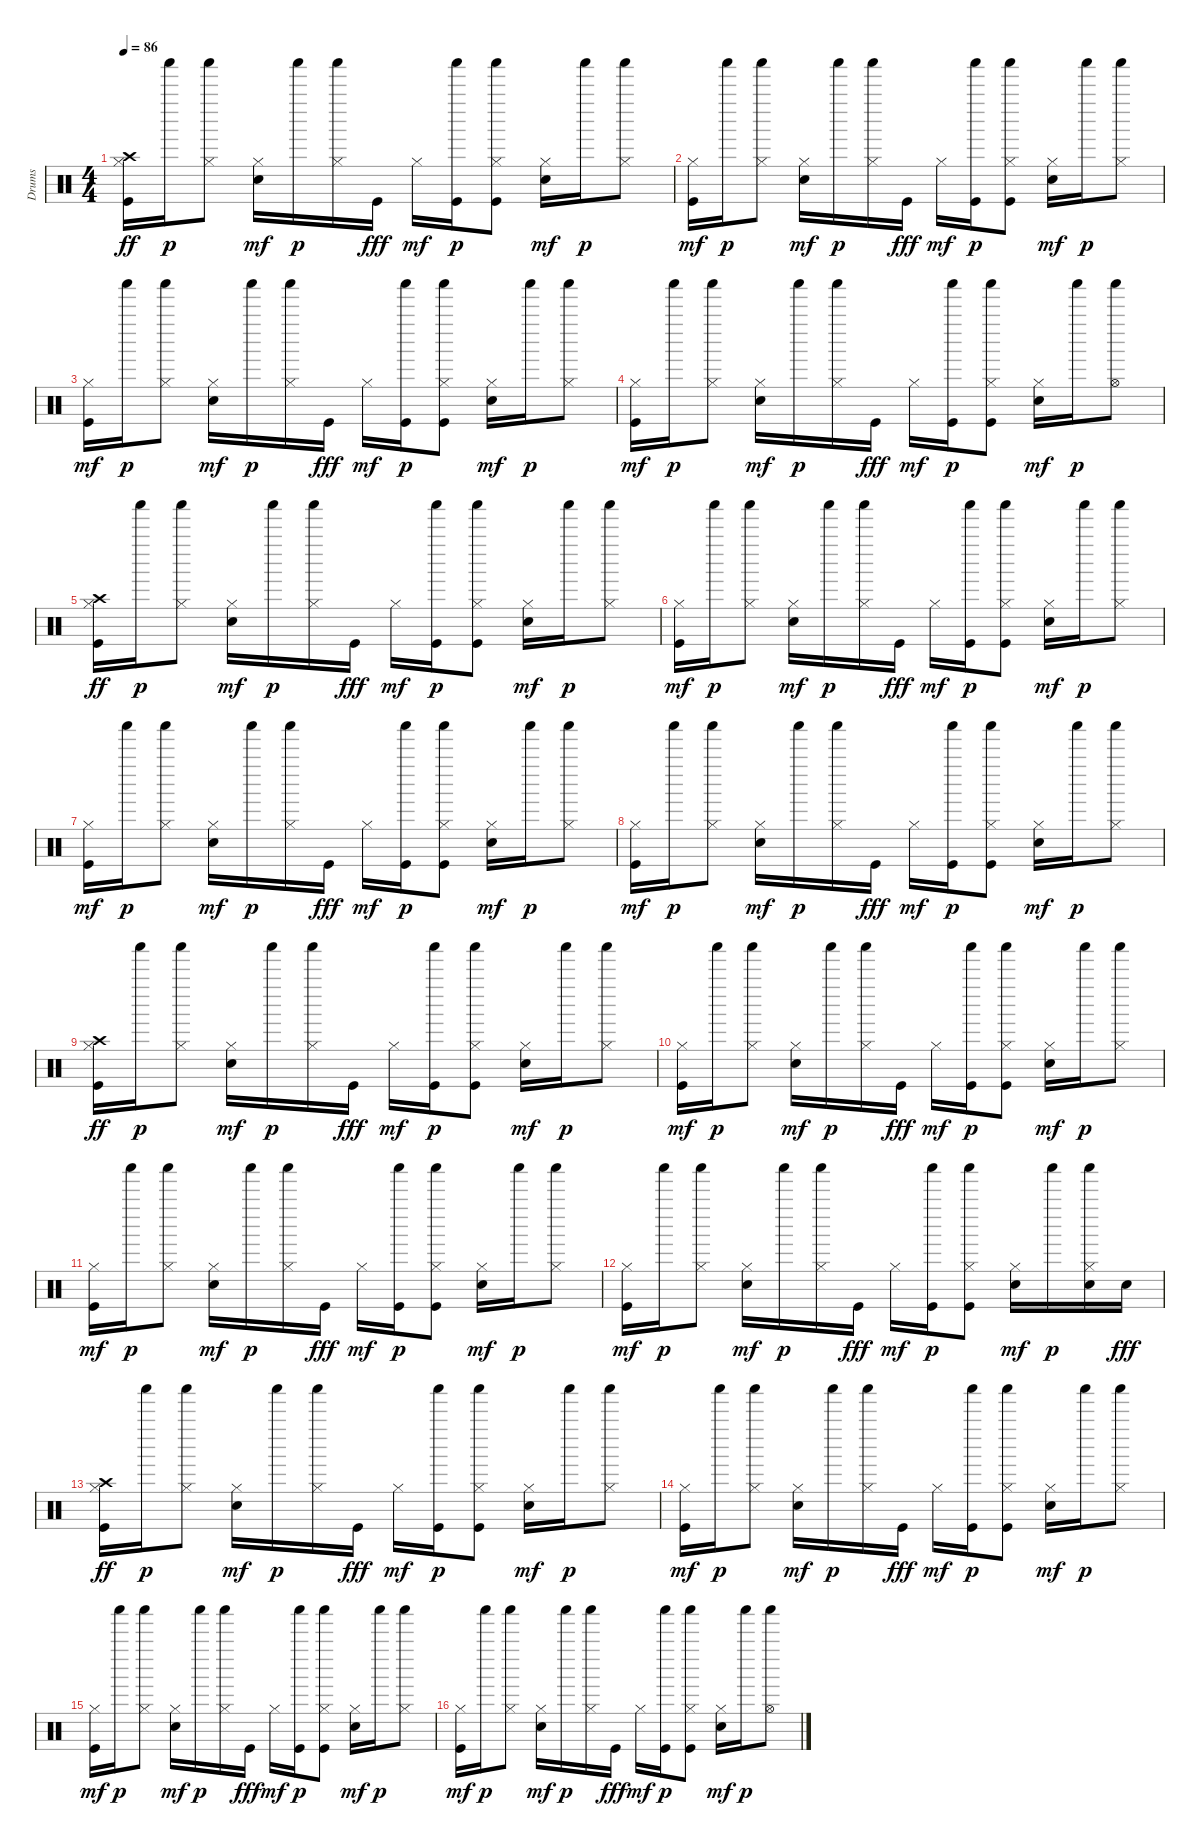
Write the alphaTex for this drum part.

\track ("Drums               " "Drums     ") {instrument percussion}
\staff {score}
\articulation defaults
\ts (4 4)
\tempo 86
\clef neutral
\ks c
("Kick (hit)" "Hi-Hat (closed)" "Crash high (hit)").16{dy ff} "Shaker (hit)".16{dy p} ("Hi-Hat (closed)" "Shaker (hit)").8 ("Snare (hit) 2" "Hi-Hat (closed)").16{dy mf} "Shaker (hit)".16{dy p} ("Hi-Hat (closed)" "Shaker (hit)").16 "Kick (hit)".16{dy fff} "Hi-Hat (closed)".16{dy mf} ("Kick (hit)" "Shaker (hit)").16{dy p} ("Kick (hit)" "Hi-Hat (closed)" "Shaker (hit)").8 ("Snare (hit) 2" "Hi-Hat (closed)").16{dy mf} "Shaker (hit)".16{dy p} ("Hi-Hat (closed)" "Shaker (hit)").8 |
("Kick (hit)" "Hi-Hat (closed)").16{dy mf} "Shaker (hit)".16{dy p} ("Hi-Hat (closed)" "Shaker (hit)").8 ("Snare (hit) 2" "Hi-Hat (closed)").16{dy mf} "Shaker (hit)".16{dy p} ("Hi-Hat (closed)" "Shaker (hit)").16 "Kick (hit)".16{dy fff} "Hi-Hat (closed)".16{dy mf} ("Kick (hit)" "Shaker (hit)").16{dy p} ("Kick (hit)" "Hi-Hat (closed)" "Shaker (hit)").8 ("Snare (hit) 2" "Hi-Hat (closed)").16{dy mf} "Shaker (hit)".16{dy p} ("Hi-Hat (closed)" "Shaker (hit)").8 |
("Kick (hit)" "Hi-Hat (closed)").16{dy mf} "Shaker (hit)".16{dy p} ("Hi-Hat (closed)" "Shaker (hit)").8 ("Snare (hit) 2" "Hi-Hat (closed)").16{dy mf} "Shaker (hit)".16{dy p} ("Hi-Hat (closed)" "Shaker (hit)").16 "Kick (hit)".16{dy fff} "Hi-Hat (closed)".16{dy mf} ("Kick (hit)" "Shaker (hit)").16{dy p} ("Kick (hit)" "Hi-Hat (closed)" "Shaker (hit)").8 ("Snare (hit) 2" "Hi-Hat (closed)").16{dy mf} "Shaker (hit)".16{dy p} ("Hi-Hat (closed)" "Shaker (hit)").8 |
("Kick (hit)" "Hi-Hat (closed)").16{dy mf} "Shaker (hit)".16{dy p} ("Hi-Hat (closed)" "Shaker (hit)").8 ("Snare (hit) 2" "Hi-Hat (closed)").16{dy mf} "Shaker (hit)".16{dy p} ("Hi-Hat (closed)" "Shaker (hit)").16 "Kick (hit)".16{dy fff} "Hi-Hat (closed)".16{dy mf} ("Kick (hit)" "Shaker (hit)").16{dy p} ("Kick (hit)" "Hi-Hat (closed)" "Shaker (hit)").8 ("Snare (hit) 2" "Hi-Hat (closed)").16{dy mf} "Shaker (hit)".16{dy p} ("Hi-Hat (open)" "Shaker (hit)").8 |
("Kick (hit)" "Hi-Hat (closed)" "Crash high (hit)").16{dy ff} "Shaker (hit)".16{dy p} ("Hi-Hat (closed)" "Shaker (hit)").8 ("Snare (hit) 2" "Hi-Hat (closed)").16{dy mf} "Shaker (hit)".16{dy p} ("Hi-Hat (closed)" "Shaker (hit)").16 "Kick (hit)".16{dy fff} "Hi-Hat (closed)".16{dy mf} ("Kick (hit)" "Shaker (hit)").16{dy p} ("Kick (hit)" "Hi-Hat (closed)" "Shaker (hit)").8 ("Snare (hit) 2" "Hi-Hat (closed)").16{dy mf} "Shaker (hit)".16{dy p} ("Hi-Hat (closed)" "Shaker (hit)").8 |
("Kick (hit)" "Hi-Hat (closed)").16{dy mf} "Shaker (hit)".16{dy p} ("Hi-Hat (closed)" "Shaker (hit)").8 ("Snare (hit) 2" "Hi-Hat (closed)").16{dy mf} "Shaker (hit)".16{dy p} ("Hi-Hat (closed)" "Shaker (hit)").16 "Kick (hit)".16{dy fff} "Hi-Hat (closed)".16{dy mf} ("Kick (hit)" "Shaker (hit)").16{dy p} ("Kick (hit)" "Hi-Hat (closed)" "Shaker (hit)").8 ("Snare (hit) 2" "Hi-Hat (closed)").16{dy mf} "Shaker (hit)".16{dy p} ("Hi-Hat (closed)" "Shaker (hit)").8 |
("Kick (hit)" "Hi-Hat (closed)").16{dy mf} "Shaker (hit)".16{dy p} ("Hi-Hat (closed)" "Shaker (hit)").8 ("Snare (hit) 2" "Hi-Hat (closed)").16{dy mf} "Shaker (hit)".16{dy p} ("Hi-Hat (closed)" "Shaker (hit)").16 "Kick (hit)".16{dy fff} "Hi-Hat (closed)".16{dy mf} ("Kick (hit)" "Shaker (hit)").16{dy p} ("Kick (hit)" "Hi-Hat (closed)" "Shaker (hit)").8 ("Snare (hit) 2" "Hi-Hat (closed)").16{dy mf} "Shaker (hit)".16{dy p} ("Hi-Hat (closed)" "Shaker (hit)").8 |
("Kick (hit)" "Hi-Hat (closed)").16{dy mf} "Shaker (hit)".16{dy p} ("Hi-Hat (closed)" "Shaker (hit)").8 ("Snare (hit) 2" "Hi-Hat (closed)").16{dy mf} "Shaker (hit)".16{dy p} ("Hi-Hat (closed)" "Shaker (hit)").16 "Kick (hit)".16{dy fff} "Hi-Hat (closed)".16{dy mf} ("Kick (hit)" "Shaker (hit)").16{dy p} ("Kick (hit)" "Hi-Hat (closed)" "Shaker (hit)").8 ("Snare (hit) 2" "Hi-Hat (closed)").16{dy mf} "Shaker (hit)".16{dy p} ("Hi-Hat (closed)" "Shaker (hit)").8 |
("Kick (hit)" "Hi-Hat (closed)" "Crash high (hit)").16{dy ff} "Shaker (hit)".16{dy p} ("Hi-Hat (closed)" "Shaker (hit)").8 ("Snare (hit) 2" "Hi-Hat (closed)").16{dy mf} "Shaker (hit)".16{dy p} ("Hi-Hat (closed)" "Shaker (hit)").16 "Kick (hit)".16{dy fff} "Hi-Hat (closed)".16{dy mf} ("Kick (hit)" "Shaker (hit)").16{dy p} ("Kick (hit)" "Hi-Hat (closed)" "Shaker (hit)").8 ("Snare (hit) 2" "Hi-Hat (closed)").16{dy mf} "Shaker (hit)".16{dy p} ("Hi-Hat (closed)" "Shaker (hit)").8 |
("Kick (hit)" "Hi-Hat (closed)").16{dy mf} "Shaker (hit)".16{dy p} ("Hi-Hat (closed)" "Shaker (hit)").8 ("Snare (hit) 2" "Hi-Hat (closed)").16{dy mf} "Shaker (hit)".16{dy p} ("Hi-Hat (closed)" "Shaker (hit)").16 "Kick (hit)".16{dy fff} "Hi-Hat (closed)".16{dy mf} ("Kick (hit)" "Shaker (hit)").16{dy p} ("Kick (hit)" "Hi-Hat (closed)" "Shaker (hit)").8 ("Snare (hit) 2" "Hi-Hat (closed)").16{dy mf} "Shaker (hit)".16{dy p} ("Hi-Hat (closed)" "Shaker (hit)").8 |
("Kick (hit)" "Hi-Hat (closed)").16{dy mf} "Shaker (hit)".16{dy p} ("Hi-Hat (closed)" "Shaker (hit)").8 ("Snare (hit) 2" "Hi-Hat (closed)").16{dy mf} "Shaker (hit)".16{dy p} ("Hi-Hat (closed)" "Shaker (hit)").16 "Kick (hit)".16{dy fff} "Hi-Hat (closed)".16{dy mf} ("Kick (hit)" "Shaker (hit)").16{dy p} ("Kick (hit)" "Hi-Hat (closed)" "Shaker (hit)").8 ("Snare (hit) 2" "Hi-Hat (closed)").16{dy mf} "Shaker (hit)".16{dy p} ("Hi-Hat (closed)" "Shaker (hit)").8 |
("Kick (hit)" "Hi-Hat (closed)").16{dy mf} "Shaker (hit)".16{dy p} ("Hi-Hat (closed)" "Shaker (hit)").8 ("Snare (hit) 2" "Hi-Hat (closed)").16{dy mf} "Shaker (hit)".16{dy p} ("Hi-Hat (closed)" "Shaker (hit)").16 "Kick (hit)".16{dy fff} "Hi-Hat (closed)".16{dy mf} ("Kick (hit)" "Shaker (hit)").16{dy p} ("Kick (hit)" "Hi-Hat (closed)" "Shaker (hit)").8 ("Snare (hit) 2" "Hi-Hat (closed)").16{dy mf} "Shaker (hit)".16{dy p} ("Snare (hit) 2" "Hi-Hat (closed)" "Shaker (hit)").16 "Snare (hit) 2".16{dy fff} |
("Kick (hit)" "Hi-Hat (closed)" "Crash high (hit)").16{dy ff} "Shaker (hit)".16{dy p} ("Hi-Hat (closed)" "Shaker (hit)").8 ("Snare (hit) 2" "Hi-Hat (closed)").16{dy mf} "Shaker (hit)".16{dy p} ("Hi-Hat (closed)" "Shaker (hit)").16 "Kick (hit)".16{dy fff} "Hi-Hat (closed)".16{dy mf} ("Kick (hit)" "Shaker (hit)").16{dy p} ("Kick (hit)" "Hi-Hat (closed)" "Shaker (hit)").8 ("Snare (hit) 2" "Hi-Hat (closed)").16{dy mf} "Shaker (hit)".16{dy p} ("Hi-Hat (closed)" "Shaker (hit)").8 |
("Kick (hit)" "Hi-Hat (closed)").16{dy mf} "Shaker (hit)".16{dy p} ("Hi-Hat (closed)" "Shaker (hit)").8 ("Snare (hit) 2" "Hi-Hat (closed)").16{dy mf} "Shaker (hit)".16{dy p} ("Hi-Hat (closed)" "Shaker (hit)").16 "Kick (hit)".16{dy fff} "Hi-Hat (closed)".16{dy mf} ("Kick (hit)" "Shaker (hit)").16{dy p} ("Kick (hit)" "Hi-Hat (closed)" "Shaker (hit)").8 ("Snare (hit) 2" "Hi-Hat (closed)").16{dy mf} "Shaker (hit)".16{dy p} ("Hi-Hat (closed)" "Shaker (hit)").8 |
("Kick (hit)" "Hi-Hat (closed)").16{dy mf} "Shaker (hit)".16{dy p} ("Hi-Hat (closed)" "Shaker (hit)").8 ("Snare (hit) 2" "Hi-Hat (closed)").16{dy mf} "Shaker (hit)".16{dy p} ("Hi-Hat (closed)" "Shaker (hit)").16 "Kick (hit)".16{dy fff} "Hi-Hat (closed)".16{dy mf} ("Kick (hit)" "Shaker (hit)").16{dy p} ("Kick (hit)" "Hi-Hat (closed)" "Shaker (hit)").8 ("Snare (hit) 2" "Hi-Hat (closed)").16{dy mf} "Shaker (hit)".16{dy p} ("Hi-Hat (closed)" "Shaker (hit)").8 |
("Kick (hit)" "Hi-Hat (closed)").16{dy mf} "Shaker (hit)".16{dy p} ("Hi-Hat (closed)" "Shaker (hit)").8 ("Snare (hit) 2" "Hi-Hat (closed)").16{dy mf} "Shaker (hit)".16{dy p} ("Hi-Hat (closed)" "Shaker (hit)").16 "Kick (hit)".16{dy fff} "Hi-Hat (closed)".16{dy mf} ("Kick (hit)" "Shaker (hit)").16{dy p} ("Kick (hit)" "Hi-Hat (closed)" "Shaker (hit)").8 ("Snare (hit) 2" "Hi-Hat (closed)").16{dy mf} "Shaker (hit)".16{dy p} ("Hi-Hat (open)" "Shaker (hit)").8
